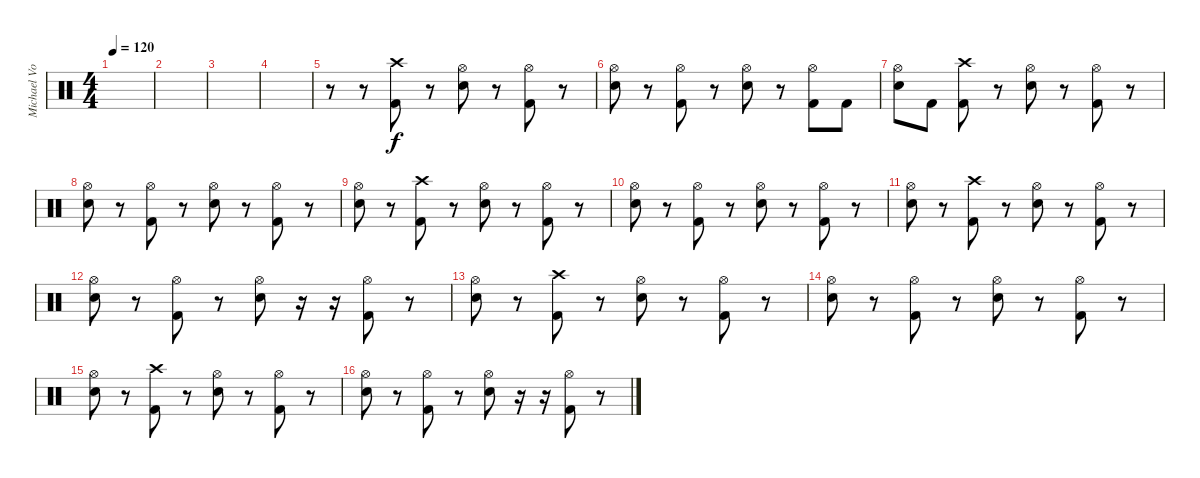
\track ("Michael Von Knorring" "Michael Vo") {instrument percussion}
\staff {score}
\articulation defaults
\ts (4 4)
\tempo 120
\clef neutral
\ks c
|
|
|
|
r.8 r.8 ("Crash high (hit)" "Kick (hit) 2").8 r.8 ("Hi-Hat (open)" "Snare (hit) 2").8 r.8 ("Hi-Hat (open)" "Kick (hit) 2").8 r.8 |
("Hi-Hat (open)" "Snare (hit) 2").8 r.8 ("Hi-Hat (open)" "Kick (hit) 2").8 r.8 ("Hi-Hat (open)" "Snare (hit) 2").8 r.8 ("Kick (hit) 2" "Hi-Hat (open)").8 "Kick (hit) 2".8 |
("Hi-Hat (open)" "Snare (hit) 2").8 "Kick (hit) 2".8 ("Crash high (hit)" "Kick (hit) 2").8 r.8 ("Hi-Hat (open)" "Snare (hit) 2").8 r.8 ("Hi-Hat (open)" "Kick (hit) 2").8 r.8 |
("Hi-Hat (open)" "Snare (hit) 2").8 r.8 ("Hi-Hat (open)" "Kick (hit) 2").8 r.8 ("Hi-Hat (open)" "Snare (hit) 2").8 r.8 ("Hi-Hat (open)" "Kick (hit) 2").8 r.8 |
("Hi-Hat (open)" "Snare (hit) 2").8 r.8 ("Crash high (hit)" "Kick (hit) 2").8 r.8 ("Hi-Hat (open)" "Snare (hit) 2").8 r.8 ("Hi-Hat (open)" "Kick (hit) 2").8 r.8 |
("Hi-Hat (open)" "Snare (hit) 2").8 r.8 ("Hi-Hat (open)" "Kick (hit) 2").8 r.8 ("Hi-Hat (open)" "Snare (hit) 2").8 r.8 ("Kick (hit) 2" "Hi-Hat (open)").8 r.8 |
("Hi-Hat (open)" "Snare (hit) 2").8 r.8 ("Crash high (hit)" "Kick (hit) 2").8 r.8 ("Hi-Hat (open)" "Snare (hit) 2").8 r.8 ("Hi-Hat (open)" "Kick (hit) 2").8 r.8 |
("Hi-Hat (open)" "Snare (hit) 2").8 r.8 ("Hi-Hat (open)" "Kick (hit) 2").8 r.8 ("Hi-Hat (open)" "Snare (hit) 2").8 r.16 r.16 ("Hi-Hat (open)" "Kick (hit) 2").8 r.8 |
("Hi-Hat (open)" "Snare (hit) 2").8 r.8 ("Crash high (hit)" "Kick (hit) 2").8 r.8 ("Hi-Hat (open)" "Snare (hit) 2").8 r.8 ("Hi-Hat (open)" "Kick (hit) 2").8 r.8 |
("Hi-Hat (open)" "Snare (hit) 2").8 r.8 ("Hi-Hat (open)" "Kick (hit) 2").8 r.8 ("Hi-Hat (open)" "Snare (hit) 2").8 r.8 ("Kick (hit) 2" "Hi-Hat (open)").8 r.8 |
("Hi-Hat (open)" "Snare (hit) 2").8 r.8 ("Crash high (hit)" "Kick (hit) 2").8 r.8 ("Hi-Hat (open)" "Snare (hit) 2").8 r.8 ("Hi-Hat (open)" "Kick (hit) 2").8 r.8 |
("Hi-Hat (open)" "Snare (hit) 2").8 r.8 ("Hi-Hat (open)" "Kick (hit) 2").8 r.8 ("Hi-Hat (open)" "Snare (hit) 2").8 r.16 r.16 ("Hi-Hat (open)" "Kick (hit) 2").8 r.8
